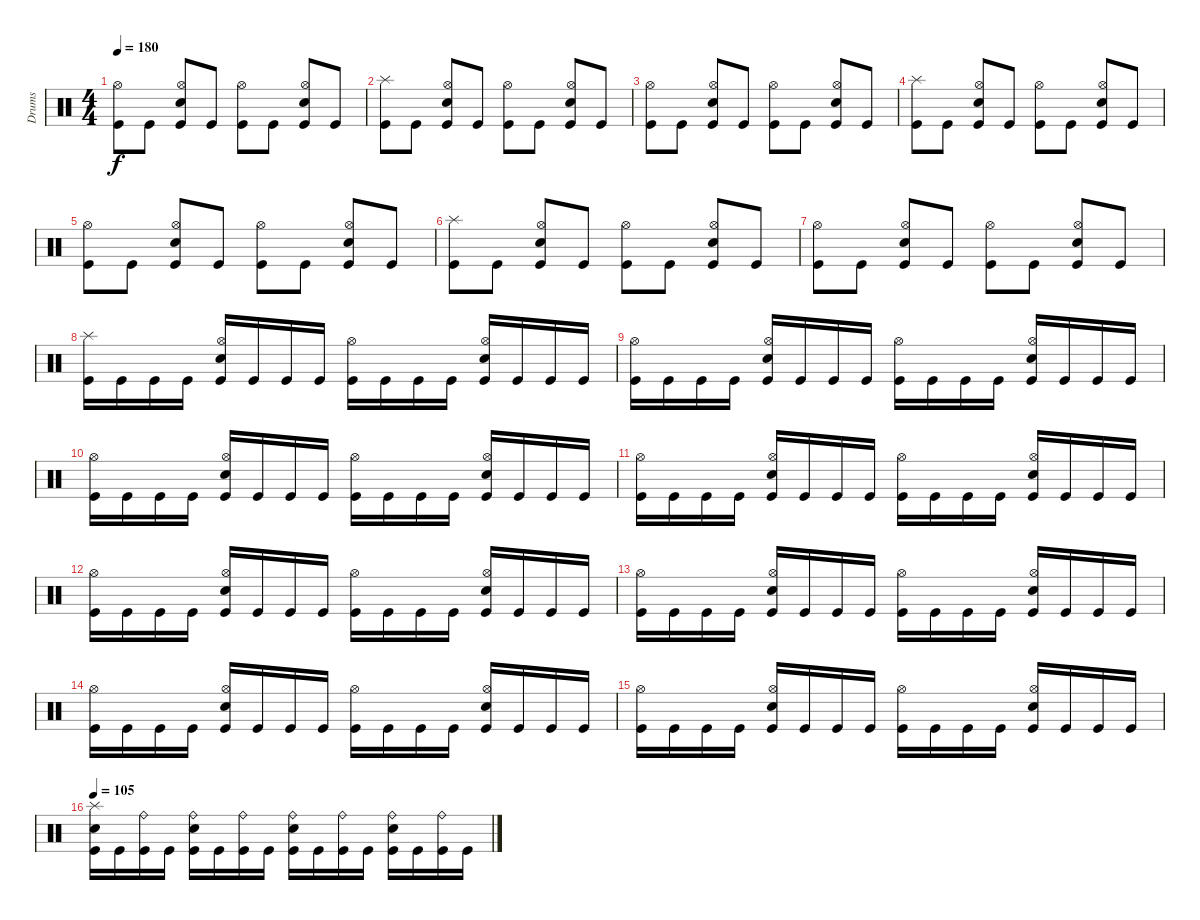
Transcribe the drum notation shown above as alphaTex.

\track ("Drums" "Drums") {instrument percussion}
\staff {score}
\articulation defaults
\ts (4 4)
\tempo 180
\clef neutral
\ks c
("Kick (hit)" "Hi-Hat (open)").8{dy f} "Kick (hit)".8 ("Kick (hit)" "Electric Snare (hit)" "Hi-Hat (open)").8 "Kick (hit)".8 ("Kick (hit)" "Hi-Hat (open)").8 "Kick (hit)".8 ("Kick (hit)" "Electric Snare (hit)" "Hi-Hat (open)").8 "Kick (hit)".8 |
("Kick (hit)" "Splash (hit)").8 "Kick (hit)".8 ("Kick (hit)" "Electric Snare (hit)" "Hi-Hat (open)").8 "Kick (hit)".8 ("Kick (hit)" "Hi-Hat (open)").8 "Kick (hit)".8 ("Kick (hit)" "Electric Snare (hit)" "Hi-Hat (open)").8 "Kick (hit)".8 |
("Kick (hit)" "Hi-Hat (open)").8 "Kick (hit)".8 ("Kick (hit)" "Electric Snare (hit)" "Hi-Hat (open)").8 "Kick (hit)".8 ("Kick (hit)" "Hi-Hat (open)").8 "Kick (hit)".8 ("Kick (hit)" "Electric Snare (hit)" "Hi-Hat (open)").8 "Kick (hit)".8 |
("Kick (hit)" "Splash (hit)").8 "Kick (hit)".8 ("Kick (hit)" "Electric Snare (hit)" "Hi-Hat (open)").8 "Kick (hit)".8 ("Kick (hit)" "Hi-Hat (open)").8 "Kick (hit)".8 ("Kick (hit)" "Electric Snare (hit)" "Hi-Hat (open)").8 "Kick (hit)".8 |
("Kick (hit)" "Hi-Hat (open)").8 "Kick (hit)".8 ("Kick (hit)" "Electric Snare (hit)" "Hi-Hat (open)").8 "Kick (hit)".8 ("Kick (hit)" "Hi-Hat (open)").8 "Kick (hit)".8 ("Kick (hit)" "Electric Snare (hit)" "Hi-Hat (open)").8 "Kick (hit)".8 |
("Kick (hit)" "Splash (hit)").8 "Kick (hit)".8 ("Kick (hit)" "Electric Snare (hit)" "Hi-Hat (open)").8 "Kick (hit)".8 ("Kick (hit)" "Hi-Hat (open)").8 "Kick (hit)".8 ("Kick (hit)" "Electric Snare (hit)" "Hi-Hat (open)").8 "Kick (hit)".8 |
("Kick (hit)" "Hi-Hat (open)").8 "Kick (hit)".8 ("Kick (hit)" "Electric Snare (hit)" "Hi-Hat (open)").8 "Kick (hit)".8 ("Kick (hit)" "Hi-Hat (open)").8 "Kick (hit)".8 ("Kick (hit)" "Electric Snare (hit)" "Hi-Hat (open)").8 "Kick (hit)".8 |
("Kick (hit)" "Splash (hit)").16 "Kick (hit)".16 "Kick (hit)".16 "Kick (hit)".16 ("Kick (hit)" "Electric Snare (hit)" "Hi-Hat (open)").16 "Kick (hit)".16 "Kick (hit)".16 "Kick (hit)".16 ("Kick (hit)" "Hi-Hat (open)").16 "Kick (hit)".16 "Kick (hit)".16 "Kick (hit)".16 ("Kick (hit)" "Electric Snare (hit)" "Hi-Hat (open)").16 "Kick (hit)".16 "Kick (hit)".16 "Kick (hit)".16 |
("Kick (hit)" "Hi-Hat (open)").16 "Kick (hit)".16 "Kick (hit)".16 "Kick (hit)".16 ("Kick (hit)" "Electric Snare (hit)" "Hi-Hat (open)").16 "Kick (hit)".16 "Kick (hit)".16 "Kick (hit)".16 ("Kick (hit)" "Hi-Hat (open)").16 "Kick (hit)".16 "Kick (hit)".16 "Kick (hit)".16 ("Kick (hit)" "Electric Snare (hit)" "Hi-Hat (open)").16 "Kick (hit)".16 "Kick (hit)".16 "Kick (hit)".16 |
("Kick (hit)" "Hi-Hat (open)").16 "Kick (hit)".16 "Kick (hit)".16 "Kick (hit)".16 ("Kick (hit)" "Electric Snare (hit)" "Hi-Hat (open)").16 "Kick (hit)".16 "Kick (hit)".16 "Kick (hit)".16 ("Kick (hit)" "Hi-Hat (open)").16 "Kick (hit)".16 "Kick (hit)".16 "Kick (hit)".16 ("Kick (hit)" "Electric Snare (hit)" "Hi-Hat (open)").16 "Kick (hit)".16 "Kick (hit)".16 "Kick (hit)".16 |
("Kick (hit)" "Hi-Hat (open)").16 "Kick (hit)".16 "Kick (hit)".16 "Kick (hit)".16 ("Kick (hit)" "Electric Snare (hit)" "Hi-Hat (open)").16 "Kick (hit)".16 "Kick (hit)".16 "Kick (hit)".16 ("Kick (hit)" "Hi-Hat (open)").16 "Kick (hit)".16 "Kick (hit)".16 "Kick (hit)".16 ("Kick (hit)" "Electric Snare (hit)" "Hi-Hat (open)").16 "Kick (hit)".16 "Kick (hit)".16 "Kick (hit)".16 |
("Kick (hit)" "Hi-Hat (open)").16 "Kick (hit)".16 "Kick (hit)".16 "Kick (hit)".16 ("Kick (hit)" "Electric Snare (hit)" "Hi-Hat (open)").16 "Kick (hit)".16 "Kick (hit)".16 "Kick (hit)".16 ("Kick (hit)" "Hi-Hat (open)").16 "Kick (hit)".16 "Kick (hit)".16 "Kick (hit)".16 ("Kick (hit)" "Electric Snare (hit)" "Hi-Hat (open)").16 "Kick (hit)".16 "Kick (hit)".16 "Kick (hit)".16 |
("Kick (hit)" "Hi-Hat (open)").16 "Kick (hit)".16 "Kick (hit)".16 "Kick (hit)".16 ("Kick (hit)" "Electric Snare (hit)" "Hi-Hat (open)").16 "Kick (hit)".16 "Kick (hit)".16 "Kick (hit)".16 ("Kick (hit)" "Hi-Hat (open)").16 "Kick (hit)".16 "Kick (hit)".16 "Kick (hit)".16 ("Kick (hit)" "Electric Snare (hit)" "Hi-Hat (open)").16 "Kick (hit)".16 "Kick (hit)".16 "Kick (hit)".16 |
("Kick (hit)" "Hi-Hat (open)").16 "Kick (hit)".16 "Kick (hit)".16 "Kick (hit)".16 ("Kick (hit)" "Electric Snare (hit)" "Hi-Hat (open)").16 "Kick (hit)".16 "Kick (hit)".16 "Kick (hit)".16 ("Kick (hit)" "Hi-Hat (open)").16 "Kick (hit)".16 "Kick (hit)".16 "Kick (hit)".16 ("Kick (hit)" "Electric Snare (hit)" "Hi-Hat (open)").16 "Kick (hit)".16 "Kick (hit)".16 "Kick (hit)".16 |
("Kick (hit)" "Hi-Hat (open)").16 "Kick (hit)".16 "Kick (hit)".16 "Kick (hit)".16 ("Kick (hit)" "Electric Snare (hit)" "Hi-Hat (open)").16 "Kick (hit)".16 "Kick (hit)".16 "Kick (hit)".16 ("Kick (hit)" "Hi-Hat (open)").16 "Kick (hit)".16 "Kick (hit)".16 "Kick (hit)".16 ("Kick (hit)" "Electric Snare (hit)" "Hi-Hat (open)").16 "Kick (hit)".16 "Kick (hit)".16 "Kick (hit)".16 |
\tempo 105
("Kick (hit)" "Electric Snare (hit)" "Splash (hit)").16 "Kick (hit)".16 ("Kick (hit)" "Ride (bell)").16 "Kick (hit)".16 ("Kick (hit)" "Electric Snare (hit)" "Ride (bell)").16 "Kick (hit)".16 ("Kick (hit)" "Ride (bell)").16 "Kick (hit)".16 ("Kick (hit)" "Electric Snare (hit)" "Ride (bell)").16 "Kick (hit)".16 ("Kick (hit)" "Ride (bell)").16 "Kick (hit)".16 ("Kick (hit)" "Electric Snare (hit)" "Ride (bell)").16 "Kick (hit)".16 ("Kick (hit)" "Ride (bell)").16 "Kick (hit)".16
